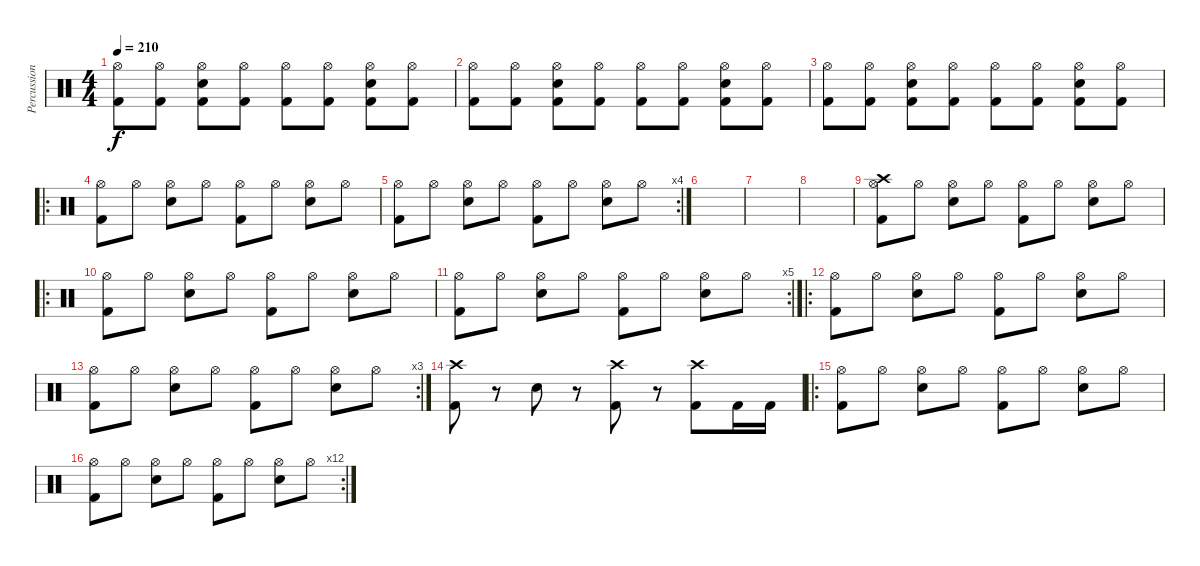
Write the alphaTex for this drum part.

\track ("Percussion" "Percussion") {instrument percussion}
\staff {score}
\articulation defaults
\ts (4 4)
\tempo 210
\clef neutral
\ks c
("Hi-Hat (open)" "Kick (hit) 2").8{dy f} ("Hi-Hat (open)" "Kick (hit) 2").8 ("Hi-Hat (open)" "Snare (hit) 2" "Kick (hit) 2").8 ("Hi-Hat (open)" "Kick (hit) 2").8 ("Hi-Hat (open)" "Kick (hit) 2").8 ("Hi-Hat (open)" "Kick (hit) 2").8 ("Hi-Hat (open)" "Snare (hit) 2" "Kick (hit) 2").8 ("Hi-Hat (open)" "Kick (hit) 2").8 |
("Hi-Hat (open)" "Kick (hit) 2").8 ("Hi-Hat (open)" "Kick (hit) 2").8 ("Hi-Hat (open)" "Snare (hit) 2" "Kick (hit) 2").8 ("Hi-Hat (open)" "Kick (hit) 2").8 ("Hi-Hat (open)" "Kick (hit) 2").8 ("Hi-Hat (open)" "Kick (hit) 2").8 ("Hi-Hat (open)" "Snare (hit) 2" "Kick (hit) 2").8 ("Hi-Hat (open)" "Kick (hit) 2").8 |
("Hi-Hat (open)" "Kick (hit) 2").8 ("Hi-Hat (open)" "Kick (hit) 2").8 ("Hi-Hat (open)" "Snare (hit) 2" "Kick (hit) 2").8 ("Hi-Hat (open)" "Kick (hit) 2").8 ("Hi-Hat (open)" "Kick (hit) 2").8 ("Hi-Hat (open)" "Kick (hit) 2").8 ("Hi-Hat (open)" "Snare (hit) 2" "Kick (hit) 2").8 ("Hi-Hat (open)" "Kick (hit) 2").8 |
\ro
("Hi-Hat (open)" "Kick (hit) 2").8 "Hi-Hat (open)".8 ("Hi-Hat (open)" "Snare (hit) 2").8 "Hi-Hat (open)".8 ("Hi-Hat (open)" "Kick (hit) 2").8 "Hi-Hat (open)".8 ("Hi-Hat (open)" "Snare (hit) 2").8 "Hi-Hat (open)".8 |
\rc 4
("Hi-Hat (open)" "Kick (hit) 2").8 "Hi-Hat (open)".8 ("Hi-Hat (open)" "Snare (hit) 2").8 "Hi-Hat (open)".8 ("Hi-Hat (open)" "Kick (hit) 2").8 "Hi-Hat (open)".8 ("Hi-Hat (open)" "Snare (hit) 2").8 "Hi-Hat (open)".8 |
|
|
|
("Hi-Hat (open)" "Crash high (hit)" "Kick (hit) 2").8 "Hi-Hat (open)".8 ("Hi-Hat (open)" "Snare (hit) 2").8 "Hi-Hat (open)".8 ("Hi-Hat (open)" "Kick (hit) 2").8 "Hi-Hat (open)".8 ("Hi-Hat (open)" "Snare (hit) 2").8 "Hi-Hat (open)".8 |
\ro
("Hi-Hat (open)" "Kick (hit) 2").8 "Hi-Hat (open)".8 ("Hi-Hat (open)" "Snare (hit) 2").8 "Hi-Hat (open)".8 ("Hi-Hat (open)" "Kick (hit) 2").8 "Hi-Hat (open)".8 ("Hi-Hat (open)" "Snare (hit) 2").8 "Hi-Hat (open)".8 |
\rc 5
("Hi-Hat (open)" "Kick (hit) 2").8 "Hi-Hat (open)".8 ("Hi-Hat (open)" "Snare (hit) 2").8 "Hi-Hat (open)".8 ("Hi-Hat (open)" "Kick (hit) 2").8 "Hi-Hat (open)".8 ("Hi-Hat (open)" "Snare (hit) 2").8 "Hi-Hat (open)".8 |
\ro
("Hi-Hat (open)" "Kick (hit) 2").8 "Hi-Hat (open)".8 ("Hi-Hat (open)" "Snare (hit) 2").8 "Hi-Hat (open)".8 ("Hi-Hat (open)" "Kick (hit) 2").8 "Hi-Hat (open)".8 ("Hi-Hat (open)" "Snare (hit) 2").8 "Hi-Hat (open)".8 |
\rc 3
("Hi-Hat (open)" "Kick (hit) 2").8 "Hi-Hat (open)".8 ("Hi-Hat (open)" "Snare (hit) 2").8 "Hi-Hat (open)".8 ("Hi-Hat (open)" "Kick (hit) 2").8 "Hi-Hat (open)".8 ("Hi-Hat (open)" "Snare (hit) 2").8 "Hi-Hat (open)".8 |
("Crash high (hit)" "Kick (hit) 2").8 r.8 "Snare (hit) 2".8 r.8 ("Crash high (hit)" "Kick (hit) 2").8 r.8 ("Crash high (hit)" "Kick (hit) 2").8 "Kick (hit) 2".16 "Kick (hit) 2".16 |
\ro
("Hi-Hat (open)" "Kick (hit) 2").8 "Hi-Hat (open)".8 ("Hi-Hat (open)" "Snare (hit) 2").8 "Hi-Hat (open)".8 ("Hi-Hat (open)" "Kick (hit) 2").8 "Hi-Hat (open)".8 ("Hi-Hat (open)" "Snare (hit) 2").8 "Hi-Hat (open)".8 |
\rc 12
("Hi-Hat (open)" "Kick (hit) 2").8 "Hi-Hat (open)".8 ("Hi-Hat (open)" "Snare (hit) 2").8 "Hi-Hat (open)".8 ("Hi-Hat (open)" "Kick (hit) 2").8 "Hi-Hat (open)".8 ("Hi-Hat (open)" "Snare (hit) 2").8 "Hi-Hat (open)".8
